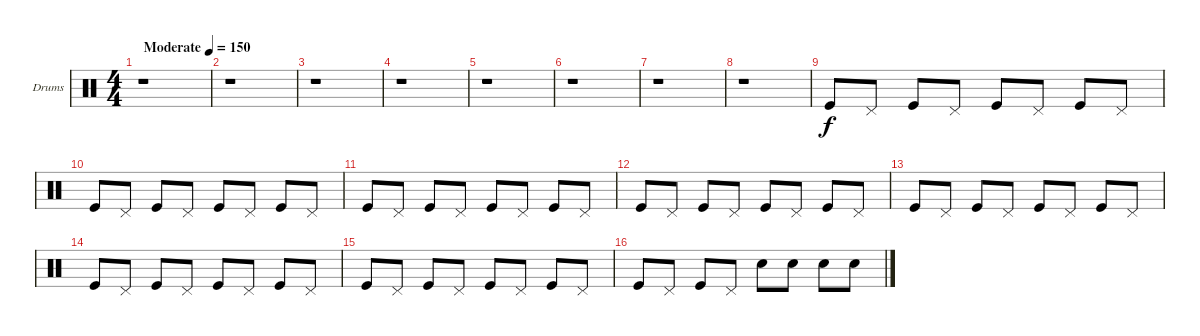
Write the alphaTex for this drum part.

\bracketExtendMode groupsimilarinstruments
\firstSystemTrackNameOrientation horizontal
\otherSystemsTrackNameOrientation horizontal
\track ("Rolo" "Drums") {instrument percussion}
\staff {score}
\articulation defaults
\ts (4 4)
\beaming (8 2 2 2 2)
\tempo (150 "Moderate")
\clef neutral
\ks c
r.1{dy f} |
r.1 |
r.1 |
r.1 |
r.1 |
r.1 |
r.1 |
r.1 |
"Kick (hit)".8 "Pedal Hi-Hat (hit)".8 "Kick (hit)".8 "Pedal Hi-Hat (hit)".8 "Kick (hit)".8 "Pedal Hi-Hat (hit)".8 "Kick (hit)".8 "Pedal Hi-Hat (hit)".8 |
"Kick (hit)".8 "Pedal Hi-Hat (hit)".8 "Kick (hit)".8 "Pedal Hi-Hat (hit)".8 "Kick (hit)".8 "Pedal Hi-Hat (hit)".8 "Kick (hit)".8 "Pedal Hi-Hat (hit)".8 |
"Kick (hit)".8 "Pedal Hi-Hat (hit)".8 "Kick (hit)".8 "Pedal Hi-Hat (hit)".8 "Kick (hit)".8 "Pedal Hi-Hat (hit)".8 "Kick (hit)".8 "Pedal Hi-Hat (hit)".8 |
"Kick (hit)".8 "Pedal Hi-Hat (hit)".8 "Kick (hit)".8 "Pedal Hi-Hat (hit)".8 "Kick (hit)".8 "Pedal Hi-Hat (hit)".8 "Kick (hit)".8 "Pedal Hi-Hat (hit)".8 |
"Kick (hit)".8 "Pedal Hi-Hat (hit)".8 "Kick (hit)".8 "Pedal Hi-Hat (hit)".8 "Kick (hit)".8 "Pedal Hi-Hat (hit)".8 "Kick (hit)".8 "Pedal Hi-Hat (hit)".8 |
"Kick (hit)".8 "Pedal Hi-Hat (hit)".8 "Kick (hit)".8 "Pedal Hi-Hat (hit)".8 "Kick (hit)".8 "Pedal Hi-Hat (hit)".8 "Kick (hit)".8 "Pedal Hi-Hat (hit)".8 |
"Kick (hit)".8 "Pedal Hi-Hat (hit)".8 "Kick (hit)".8 "Pedal Hi-Hat (hit)".8 "Kick (hit)".8 "Pedal Hi-Hat (hit)".8 "Kick (hit)".8 "Pedal Hi-Hat (hit)".8 |
"Kick (hit)".8 "Pedal Hi-Hat (hit)".8 "Kick (hit)".8 "Pedal Hi-Hat (hit)".8 "Snare (hit) 2".8 "Snare (hit) 2".8 "Snare (hit) 2".8 "Snare (hit) 2".8
